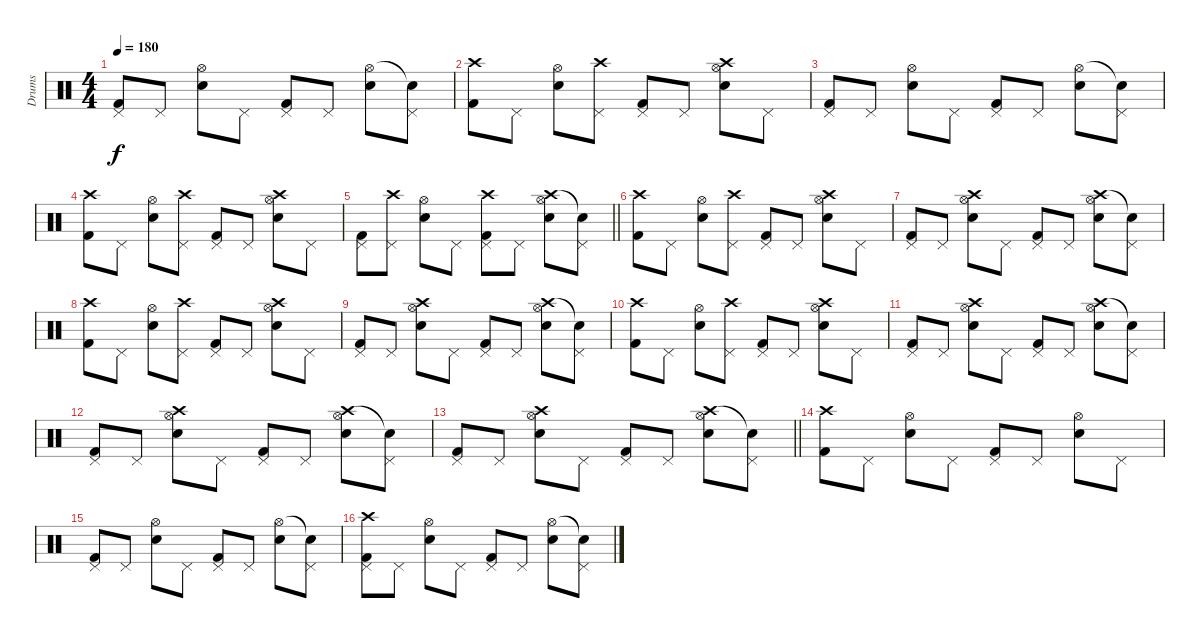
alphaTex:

\track ("Drums" "Drums") {instrument percussion}
\staff {score}
\articulation defaults
\ts (4 4)
\tempo 180
\clef neutral
\ks c
("Pedal Hi-Hat (hit)" "Kick (hit) 2").8{dy f} "Pedal Hi-Hat (hit)".8 ("Hi-Hat (open)" "Snare (hit) 2").8 "Pedal Hi-Hat (hit)".8 ("Pedal Hi-Hat (hit)" "Kick (hit) 2").8 "Pedal Hi-Hat (hit)".8 ("Hi-Hat (open)" "Snare (hit) 2").8 ("Snare (hit)"{t} "Pedal Hi-Hat (hit)").8 |
("Crash high (hit)" "Kick (hit) 2").8 "Pedal Hi-Hat (hit)".8 ("Hi-Hat (open)" "Snare (hit) 2").8 ("Crash high (hit)" "Pedal Hi-Hat (hit)").8 ("Pedal Hi-Hat (hit)" "Kick (hit) 2").8 "Pedal Hi-Hat (hit)".8 ("Crash high (hit)" "Hi-Hat (open)" "Snare (hit) 2").8 "Pedal Hi-Hat (hit)".8 |
("Pedal Hi-Hat (hit)" "Kick (hit) 2").8 "Pedal Hi-Hat (hit)".8 ("Hi-Hat (open)" "Snare (hit) 2").8 "Pedal Hi-Hat (hit)".8 ("Pedal Hi-Hat (hit)" "Kick (hit) 2").8 "Pedal Hi-Hat (hit)".8 ("Hi-Hat (open)" "Snare (hit) 2").8 ("Snare (hit)"{t} "Pedal Hi-Hat (hit)").8 |
("Crash high (hit)" "Kick (hit) 2").8 "Pedal Hi-Hat (hit)".8 ("Hi-Hat (open)" "Snare (hit) 2").8 ("Crash high (hit)" "Pedal Hi-Hat (hit)").8 ("Pedal Hi-Hat (hit)" "Kick (hit) 2").8 "Pedal Hi-Hat (hit)".8 ("Crash high (hit)" "Hi-Hat (open)" "Snare (hit) 2").8 "Pedal Hi-Hat (hit)".8 |
\barLineRight lightlight
("Pedal Hi-Hat (hit)" "Kick (hit) 2").8 ("Crash high (hit)" "Pedal Hi-Hat (hit)").8 ("Hi-Hat (open)" "Snare (hit) 2").8 "Pedal Hi-Hat (hit)".8 ("Crash high (hit)" "Pedal Hi-Hat (hit)" "Kick (hit) 2").8 "Pedal Hi-Hat (hit)".8 ("Crash high (hit)" "Hi-Hat (open)" "Snare (hit) 2").8 ("Snare (hit)"{t} "Pedal Hi-Hat (hit)").8 |
("Crash high (hit)" "Kick (hit) 2").8 "Pedal Hi-Hat (hit)".8 ("Hi-Hat (open)" "Snare (hit) 2").8 ("Crash high (hit)" "Pedal Hi-Hat (hit)").8 ("Pedal Hi-Hat (hit)" "Kick (hit) 2").8 "Pedal Hi-Hat (hit)".8 ("Crash high (hit)" "Hi-Hat (open)" "Snare (hit) 2").8 "Pedal Hi-Hat (hit)".8 |
("Pedal Hi-Hat (hit)" "Kick (hit) 2").8 "Pedal Hi-Hat (hit)".8 ("Crash high (hit)" "Hi-Hat (open)" "Snare (hit) 2").8 "Pedal Hi-Hat (hit)".8 ("Pedal Hi-Hat (hit)" "Kick (hit) 2").8 "Pedal Hi-Hat (hit)".8 ("Crash high (hit)" "Hi-Hat (open)" "Snare (hit) 2").8 ("Snare (hit)"{t} "Pedal Hi-Hat (hit)").8 |
("Crash high (hit)" "Kick (hit) 2").8 "Pedal Hi-Hat (hit)".8 ("Hi-Hat (open)" "Snare (hit) 2").8 ("Crash high (hit)" "Pedal Hi-Hat (hit)").8 ("Pedal Hi-Hat (hit)" "Kick (hit) 2").8 "Pedal Hi-Hat (hit)".8 ("Crash high (hit)" "Hi-Hat (open)" "Snare (hit) 2").8 "Pedal Hi-Hat (hit)".8 |
("Pedal Hi-Hat (hit)" "Kick (hit) 2").8 "Pedal Hi-Hat (hit)".8 ("Crash high (hit)" "Hi-Hat (open)" "Snare (hit) 2").8 "Pedal Hi-Hat (hit)".8 ("Pedal Hi-Hat (hit)" "Kick (hit) 2").8 "Pedal Hi-Hat (hit)".8 ("Crash high (hit)" "Hi-Hat (open)" "Snare (hit) 2").8 ("Snare (hit)"{t} "Pedal Hi-Hat (hit)").8 |
("Crash high (hit)" "Kick (hit) 2").8 "Pedal Hi-Hat (hit)".8 ("Hi-Hat (open)" "Snare (hit) 2").8 ("Crash high (hit)" "Pedal Hi-Hat (hit)").8 ("Pedal Hi-Hat (hit)" "Kick (hit) 2").8 "Pedal Hi-Hat (hit)".8 ("Crash high (hit)" "Hi-Hat (open)" "Snare (hit) 2").8 "Pedal Hi-Hat (hit)".8 |
("Pedal Hi-Hat (hit)" "Kick (hit) 2").8 "Pedal Hi-Hat (hit)".8 ("Crash high (hit)" "Hi-Hat (open)" "Snare (hit) 2").8 "Pedal Hi-Hat (hit)".8 ("Pedal Hi-Hat (hit)" "Kick (hit) 2").8 "Pedal Hi-Hat (hit)".8 ("Crash high (hit)" "Hi-Hat (open)" "Snare (hit) 2").8 ("Snare (hit)"{t} "Pedal Hi-Hat (hit)").8 |
("Pedal Hi-Hat (hit)" "Kick (hit) 2").8 "Pedal Hi-Hat (hit)".8 ("Crash high (hit)" "Hi-Hat (open)" "Snare (hit) 2").8 "Pedal Hi-Hat (hit)".8 ("Pedal Hi-Hat (hit)" "Kick (hit) 2").8 "Pedal Hi-Hat (hit)".8 ("Crash high (hit)" "Hi-Hat (open)" "Snare (hit) 2").8 ("Snare (hit)"{t} "Pedal Hi-Hat (hit)").8 |
\barLineRight lightlight
("Pedal Hi-Hat (hit)" "Kick (hit) 2").8 "Pedal Hi-Hat (hit)".8 ("Crash high (hit)" "Hi-Hat (open)" "Snare (hit) 2").8 "Pedal Hi-Hat (hit)".8 ("Pedal Hi-Hat (hit)" "Kick (hit) 2").8 "Pedal Hi-Hat (hit)".8 ("Crash high (hit)" "Hi-Hat (open)" "Snare (hit) 2").8 ("Snare (hit)"{t} "Pedal Hi-Hat (hit)").8 |
("Crash high (hit)" "Kick (hit) 2").8 "Pedal Hi-Hat (hit)".8 ("Hi-Hat (open)" "Snare (hit) 2").8 "Pedal Hi-Hat (hit)".8 ("Pedal Hi-Hat (hit)" "Kick (hit) 2").8 "Pedal Hi-Hat (hit)".8 ("Hi-Hat (open)" "Snare (hit) 2").8 "Pedal Hi-Hat (hit)".8 |
("Pedal Hi-Hat (hit)" "Kick (hit) 2").8 "Pedal Hi-Hat (hit)".8 ("Hi-Hat (open)" "Snare (hit) 2").8 "Pedal Hi-Hat (hit)".8 ("Pedal Hi-Hat (hit)" "Kick (hit) 2").8 "Pedal Hi-Hat (hit)".8 ("Hi-Hat (open)" "Snare (hit) 2").8 ("Snare (hit)"{t} "Pedal Hi-Hat (hit)").8 |
("Crash high (hit)" "Pedal Hi-Hat (hit)" "Kick (hit) 2").8 "Pedal Hi-Hat (hit)".8 ("Hi-Hat (open)" "Snare (hit) 2").8 "Pedal Hi-Hat (hit)".8 ("Pedal Hi-Hat (hit)" "Kick (hit) 2").8 "Pedal Hi-Hat (hit)".8 ("Hi-Hat (open)" "Snare (hit) 2").8 ("Snare (hit)"{t} "Pedal Hi-Hat (hit)").8
